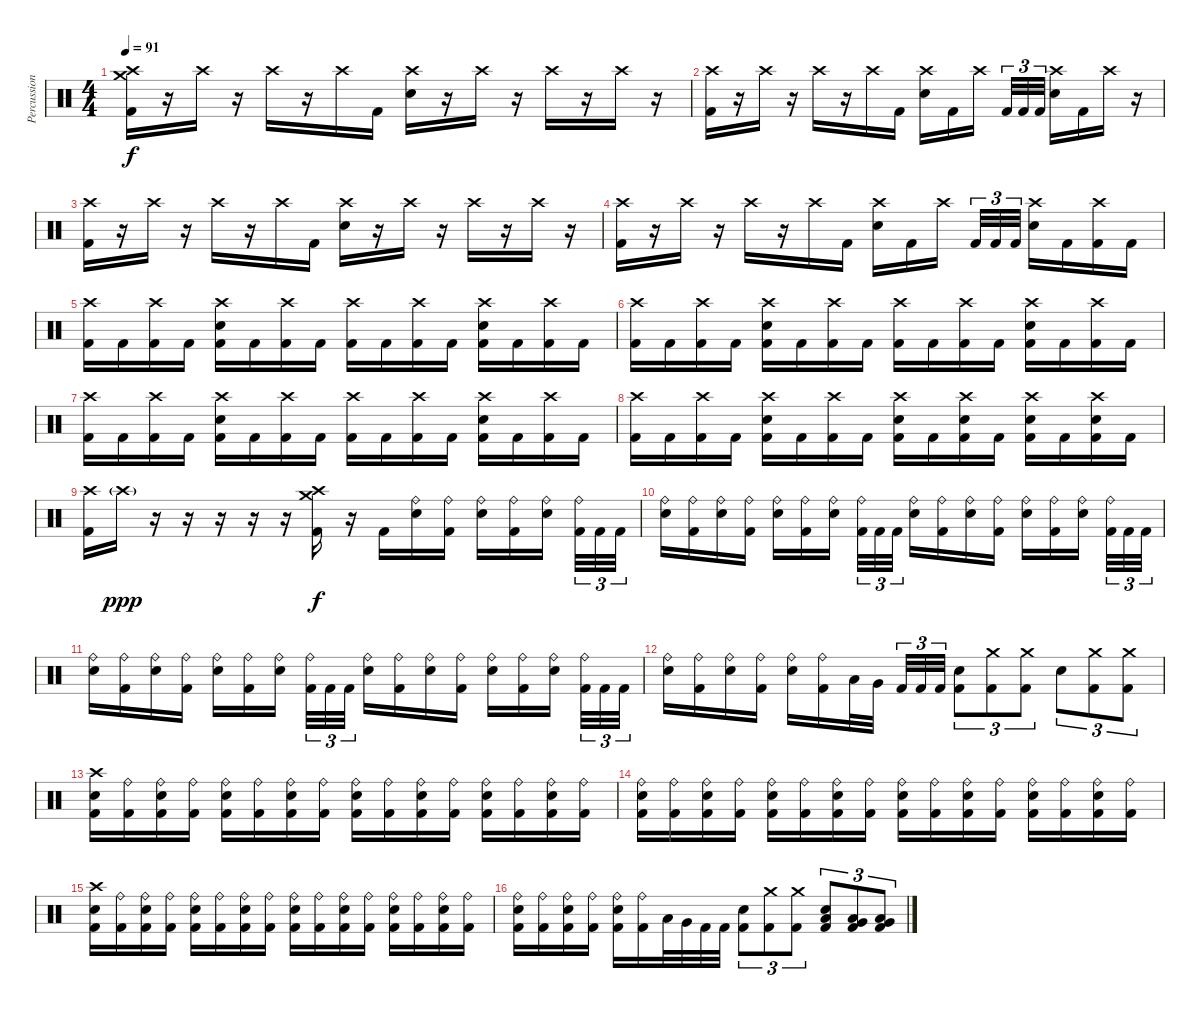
\track ("Percussion" "Percussion") {instrument percussion}
\staff {score}
\articulation defaults
\ts (4 4)
\tempo 91
\clef neutral
\ks c
("Crash high (hit)" "Crash medium (hit)" "Kick (hit) 2").16{dy f} r.16 "Crash high (hit)".16 r.16 "Crash high (hit)".16 r.16 "Crash high (hit)".16 "Kick (hit) 2".16 ("Crash high (hit)" "Electric Snare (hit)").16 r.16 "Crash high (hit)".16 r.16 "Crash high (hit)".16 r.16 "Crash high (hit)".16 r.16 |
("Crash high (hit)" "Kick (hit) 2").16 r.16 "Crash high (hit)".16 r.16 "Crash high (hit)".16 r.16 "Crash high (hit)".16 "Kick (hit) 2".16 ("Crash high (hit)" "Electric Snare (hit)").16 "Kick (hit) 2".16 "Crash high (hit)".16{beam splitsecondary} "Kick (hit) 2".32{tu (3 2)} "Kick (hit) 2".32{tu (3 2)} "Kick (hit) 2".32{tu (3 2)} ("Crash high (hit)" "Electric Snare (hit)").16 "Kick (hit) 2".16 "Crash high (hit)".16 r.16 |
("Crash high (hit)" "Kick (hit) 2").16 r.16 "Crash high (hit)".16 r.16 "Crash high (hit)".16 r.16 "Crash high (hit)".16 "Kick (hit) 2".16 ("Crash high (hit)" "Electric Snare (hit)").16 r.16 "Crash high (hit)".16 r.16 "Crash high (hit)".16 r.16 "Crash high (hit)".16 r.16 |
("Crash high (hit)" "Kick (hit) 2").16 r.16 "Crash high (hit)".16 r.16 "Crash high (hit)".16 r.16 "Crash high (hit)".16 "Kick (hit) 2".16 ("Crash high (hit)" "Electric Snare (hit)").16 "Kick (hit) 2".16 "Crash high (hit)".16{beam splitsecondary} "Kick (hit) 2".32{tu (3 2)} "Kick (hit) 2".32{tu (3 2)} "Kick (hit) 2".32{tu (3 2)} ("Crash high (hit)" "Electric Snare (hit)").16 "Kick (hit) 2".16 ("Crash high (hit)" "Kick (hit) 2").16 "Kick (hit) 2".16 |
("Crash high (hit)" "Kick (hit) 2").16 "Kick (hit) 2".16 ("Crash high (hit)" "Kick (hit) 2").16 "Kick (hit) 2".16 ("Crash high (hit)" "Electric Snare (hit)" "Kick (hit) 2").16 "Kick (hit) 2".16 ("Crash high (hit)" "Kick (hit) 2").16 "Kick (hit) 2".16 ("Crash high (hit)" "Kick (hit) 2").16 "Kick (hit) 2".16 ("Crash high (hit)" "Kick (hit) 2").16 "Kick (hit) 2".16 ("Crash high (hit)" "Electric Snare (hit)" "Kick (hit) 2").16 "Kick (hit) 2".16 ("Crash high (hit)" "Kick (hit) 2").16 "Kick (hit) 2".16 |
("Crash high (hit)" "Kick (hit) 2").16 "Kick (hit) 2".16 ("Crash high (hit)" "Kick (hit) 2").16 "Kick (hit) 2".16 ("Crash high (hit)" "Electric Snare (hit)" "Kick (hit) 2").16 "Kick (hit) 2".16 ("Crash high (hit)" "Kick (hit) 2").16 "Kick (hit) 2".16 ("Crash high (hit)" "Kick (hit) 2").16 "Kick (hit) 2".16 ("Crash high (hit)" "Kick (hit) 2").16 "Kick (hit) 2".16 ("Crash high (hit)" "Electric Snare (hit)" "Kick (hit) 2").16 "Kick (hit) 2".16 ("Crash high (hit)" "Kick (hit) 2").16 "Kick (hit) 2".16 |
("Crash high (hit)" "Kick (hit) 2").16 "Kick (hit) 2".16 ("Crash high (hit)" "Kick (hit) 2").16 "Kick (hit) 2".16 ("Crash high (hit)" "Electric Snare (hit)" "Kick (hit) 2").16 "Kick (hit) 2".16 ("Crash high (hit)" "Kick (hit) 2").16 "Kick (hit) 2".16 ("Crash high (hit)" "Kick (hit) 2").16 "Kick (hit) 2".16 ("Crash high (hit)" "Kick (hit) 2").16 "Kick (hit) 2".16 ("Crash high (hit)" "Electric Snare (hit)" "Kick (hit) 2").16 "Kick (hit) 2".16 ("Crash high (hit)" "Kick (hit) 2").16 "Kick (hit) 2".16 |
("Crash high (hit)" "Kick (hit) 2").16 "Kick (hit) 2".16 ("Crash high (hit)" "Kick (hit) 2").16 "Kick (hit) 2".16 ("Crash high (hit)" "Electric Snare (hit)" "Kick (hit) 2").16 "Kick (hit) 2".16 ("Crash high (hit)" "Kick (hit) 2").16 "Kick (hit) 2".16 ("Crash high (hit)" "Electric Snare (hit)" "Kick (hit) 2").16 "Kick (hit) 2".16 ("Crash high (hit)" "Electric Snare (hit)" "Kick (hit) 2").16 "Kick (hit) 2".16 ("Crash high (hit)" "Electric Snare (hit)" "Kick (hit) 2").16 "Kick (hit) 2".16 ("Crash high (hit)" "Electric Snare (hit)" "Kick (hit) 2").16 "Kick (hit) 2".16 |
("Crash high (hit)" "Kick (hit) 2").16 "Crash high (hit)"{g}.16{dy ppp} r.16 r.16 r.16 r.16 r.16 ("Crash high (hit)" "Crash medium (hit)" "Kick (hit) 2").16{dy f} r.16 "Kick (hit) 2".16 ("Ride (bell)" "Electric Snare (hit)").16 ("Ride (bell)" "Kick (hit) 2").16 ("Ride (bell)" "Electric Snare (hit)").16 ("Ride (bell)" "Kick (hit) 2").16 ("Ride (bell)" "Electric Snare (hit)").16{beam splitsecondary} ("Ride (bell)" "Kick (hit) 2").32{tu (3 2)} "Kick (hit) 2".32{tu (3 2)} "Kick (hit) 2".32{tu (3 2)} |
("Ride (bell)" "Electric Snare (hit)").16 ("Ride (bell)" "Kick (hit) 2").16 ("Ride (bell)" "Electric Snare (hit)").16 ("Ride (bell)" "Kick (hit) 2").16 ("Ride (bell)" "Electric Snare (hit)").16 ("Ride (bell)" "Kick (hit) 2").16 ("Ride (bell)" "Electric Snare (hit)").16{beam splitsecondary} ("Ride (bell)" "Kick (hit) 2").32{tu (3 2)} "Kick (hit) 2".32{tu (3 2)} "Kick (hit) 2".32{tu (3 2)} ("Ride (bell)" "Electric Snare (hit)").16 ("Ride (bell)" "Kick (hit) 2").16 ("Ride (bell)" "Electric Snare (hit)").16 ("Ride (bell)" "Kick (hit) 2").16 ("Ride (bell)" "Electric Snare (hit)").16 ("Ride (bell)" "Kick (hit) 2").16 ("Ride (bell)" "Electric Snare (hit)").16{beam splitsecondary} ("Ride (bell)" "Kick (hit) 2").32{tu (3 2)} "Kick (hit) 2".32{tu (3 2)} "Kick (hit) 2".32{tu (3 2)} |
("Ride (bell)" "Electric Snare (hit)").16 ("Ride (bell)" "Kick (hit) 2").16 ("Ride (bell)" "Electric Snare (hit)").16 ("Ride (bell)" "Kick (hit) 2").16 ("Ride (bell)" "Electric Snare (hit)").16 ("Ride (bell)" "Kick (hit) 2").16 ("Ride (bell)" "Electric Snare (hit)").16{beam splitsecondary} ("Ride (bell)" "Kick (hit) 2").32{tu (3 2)} "Kick (hit) 2".32{tu (3 2)} "Kick (hit) 2".32{tu (3 2)} ("Ride (bell)" "Electric Snare (hit)").16 ("Ride (bell)" "Kick (hit) 2").16 ("Ride (bell)" "Electric Snare (hit)").16 ("Ride (bell)" "Kick (hit) 2").16 ("Ride (bell)" "Electric Snare (hit)").16 ("Ride (bell)" "Kick (hit) 2").16 ("Ride (bell)" "Electric Snare (hit)").16{beam splitsecondary} ("Ride (bell)" "Kick (hit) 2").32{tu (3 2)} "Kick (hit) 2".32{tu (3 2)} "Kick (hit) 2".32{tu (3 2)} |
("Ride (bell)" "Electric Snare (hit)").16 ("Ride (bell)" "Kick (hit) 2").16 ("Ride (bell)" "Electric Snare (hit)").16 ("Ride (bell)" "Kick (hit) 2").16 ("Ride (bell)" "Electric Snare (hit)").16 ("Ride (bell)" "Kick (hit) 2").16 "Low Tom (hit)".32 "Very Low Tom (hit)".32{beam splitsecondary} "Kick (hit) 2".32{tu (3 2)} "Kick (hit) 2".32{tu (3 2)} "Kick (hit) 2".32{tu (3 2)} ("Electric Snare (hit)" "Kick (hit) 2").8{tu (3 2)} ("Crash medium (hit)" "Kick (hit) 2").8{tu (3 2)} ("Crash medium (hit)" "Kick (hit) 2").8{tu (3 2)} "Electric Snare (hit)".8{tu (3 2)} ("Crash medium (hit)" "Kick (hit) 2").8{tu (3 2)} ("Crash medium (hit)" "Kick (hit) 2").8{tu (3 2)} |
("Crash high (hit)" "Electric Snare (hit)" "Kick (hit) 2").16 ("Ride (bell)" "Kick (hit) 2").16 ("Ride (bell)" "Electric Snare (hit)" "Kick (hit) 2").16 ("Ride (bell)" "Kick (hit) 2").16 ("Ride (bell)" "Electric Snare (hit)" "Kick (hit) 2").16 ("Ride (bell)" "Kick (hit) 2").16 ("Ride (bell)" "Electric Snare (hit)" "Kick (hit) 2").16 ("Ride (bell)" "Kick (hit) 2").16 ("Ride (bell)" "Electric Snare (hit)" "Kick (hit) 2").16 ("Ride (bell)" "Kick (hit) 2").16 ("Ride (bell)" "Electric Snare (hit)" "Kick (hit) 2").16 ("Ride (bell)" "Kick (hit) 2").16 ("Ride (bell)" "Electric Snare (hit)" "Kick (hit) 2").16 ("Ride (bell)" "Kick (hit) 2").16 ("Ride (bell)" "Electric Snare (hit)" "Kick (hit) 2").16 ("Ride (bell)" "Kick (hit) 2").16 |
("Ride (bell)" "Electric Snare (hit)" "Kick (hit) 2").16 ("Ride (bell)" "Kick (hit) 2").16 ("Ride (bell)" "Electric Snare (hit)" "Kick (hit) 2").16 ("Ride (bell)" "Kick (hit) 2").16 ("Ride (bell)" "Electric Snare (hit)" "Kick (hit) 2").16 ("Ride (bell)" "Kick (hit) 2").16 ("Ride (bell)" "Electric Snare (hit)" "Kick (hit) 2").16 ("Ride (bell)" "Kick (hit) 2").16 ("Ride (bell)" "Electric Snare (hit)" "Kick (hit) 2").16 ("Ride (bell)" "Kick (hit) 2").16 ("Ride (bell)" "Electric Snare (hit)" "Kick (hit) 2").16 ("Ride (bell)" "Kick (hit) 2").16 ("Ride (bell)" "Electric Snare (hit)" "Kick (hit) 2").16 ("Ride (bell)" "Kick (hit) 2").16 ("Ride (bell)" "Electric Snare (hit)" "Kick (hit) 2").16 ("Ride (bell)" "Kick (hit) 2").16 |
("Crash high (hit)" "Electric Snare (hit)" "Kick (hit) 2").16 ("Ride (bell)" "Kick (hit) 2").16 ("Ride (bell)" "Electric Snare (hit)" "Kick (hit) 2").16 ("Ride (bell)" "Kick (hit) 2").16 ("Ride (bell)" "Electric Snare (hit)" "Kick (hit) 2").16 ("Ride (bell)" "Kick (hit) 2").16 ("Ride (bell)" "Electric Snare (hit)" "Kick (hit) 2").16 ("Ride (bell)" "Kick (hit) 2").16 ("Ride (bell)" "Electric Snare (hit)" "Kick (hit) 2").16 ("Ride (bell)" "Kick (hit) 2").16 ("Ride (bell)" "Electric Snare (hit)" "Kick (hit) 2").16 ("Ride (bell)" "Kick (hit) 2").16 ("Ride (bell)" "Electric Snare (hit)" "Kick (hit) 2").16 ("Ride (bell)" "Kick (hit) 2").16 ("Ride (bell)" "Electric Snare (hit)" "Kick (hit) 2").16 ("Ride (bell)" "Kick (hit) 2").16 |
("Ride (bell)" "Electric Snare (hit)" "Kick (hit) 2").16 ("Ride (bell)" "Kick (hit) 2").16 ("Ride (bell)" "Electric Snare (hit)" "Kick (hit) 2").16 ("Ride (bell)" "Kick (hit) 2").16 ("Ride (bell)" "Electric Snare (hit)" "Kick (hit) 2").16 ("Ride (bell)" "Kick (hit) 2").16 "Low Tom (hit)".32 "Very Low Tom (hit)".32 "Kick (hit) 2".32 "Kick (hit) 2".32 ("Electric Snare (hit)" "Kick (hit) 2").8{tu (3 2)} ("Crash medium (hit)" "Kick (hit) 2").8{tu (3 2)} ("Crash medium (hit)" "Kick (hit) 2").8{tu (3 2)} ("Electric Snare (hit)" "Low Tom (hit)" "Kick (hit) 2").8{tu (3 2)} ("Low Tom (hit)" "Very Low Tom (hit)" "Kick (hit) 2").8{tu (3 2)} ("Very Low Tom (hit)" "Low Floor Tom (hit)" "Kick (hit) 2").8{tu (3 2)}
